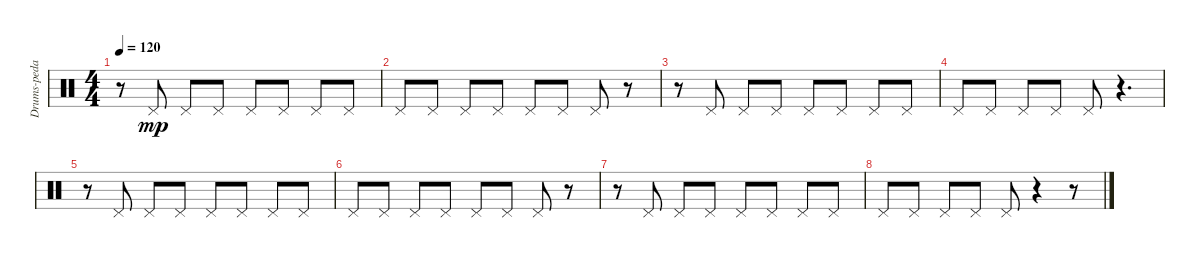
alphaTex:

\track ("Drums-pedal hi-hat" "Drums-peda") {instrument percussion}
\staff {score}
\articulation defaults
\ts (4 4)
\tempo 120
\clef neutral
\ks c
r.8{dy mp} "Pedal Hi-Hat (hit)".8 "Pedal Hi-Hat (hit)".8 "Pedal Hi-Hat (hit)".8 "Pedal Hi-Hat (hit)".8 "Pedal Hi-Hat (hit)".8 "Pedal Hi-Hat (hit)".8 "Pedal Hi-Hat (hit)".8 |
"Pedal Hi-Hat (hit)".8 "Pedal Hi-Hat (hit)".8 "Pedal Hi-Hat (hit)".8 "Pedal Hi-Hat (hit)".8 "Pedal Hi-Hat (hit)".8 "Pedal Hi-Hat (hit)".8 "Pedal Hi-Hat (hit)".8 r.8 |
r.8 "Pedal Hi-Hat (hit)".8 "Pedal Hi-Hat (hit)".8 "Pedal Hi-Hat (hit)".8 "Pedal Hi-Hat (hit)".8 "Pedal Hi-Hat (hit)".8 "Pedal Hi-Hat (hit)".8 "Pedal Hi-Hat (hit)".8 |
"Pedal Hi-Hat (hit)".8 "Pedal Hi-Hat (hit)".8 "Pedal Hi-Hat (hit)".8 "Pedal Hi-Hat (hit)".8 "Pedal Hi-Hat (hit)".8 r.4{d} |
r.8 "Pedal Hi-Hat (hit)".8 "Pedal Hi-Hat (hit)".8 "Pedal Hi-Hat (hit)".8 "Pedal Hi-Hat (hit)".8 "Pedal Hi-Hat (hit)".8 "Pedal Hi-Hat (hit)".8 "Pedal Hi-Hat (hit)".8 |
"Pedal Hi-Hat (hit)".8 "Pedal Hi-Hat (hit)".8 "Pedal Hi-Hat (hit)".8 "Pedal Hi-Hat (hit)".8 "Pedal Hi-Hat (hit)".8 "Pedal Hi-Hat (hit)".8 "Pedal Hi-Hat (hit)".8 r.8 |
r.8 "Pedal Hi-Hat (hit)".8 "Pedal Hi-Hat (hit)".8 "Pedal Hi-Hat (hit)".8 "Pedal Hi-Hat (hit)".8 "Pedal Hi-Hat (hit)".8 "Pedal Hi-Hat (hit)".8 "Pedal Hi-Hat (hit)".8 |
"Pedal Hi-Hat (hit)".8 "Pedal Hi-Hat (hit)".8 "Pedal Hi-Hat (hit)".8 "Pedal Hi-Hat (hit)".8 "Pedal Hi-Hat (hit)".8 r.4 r.8
